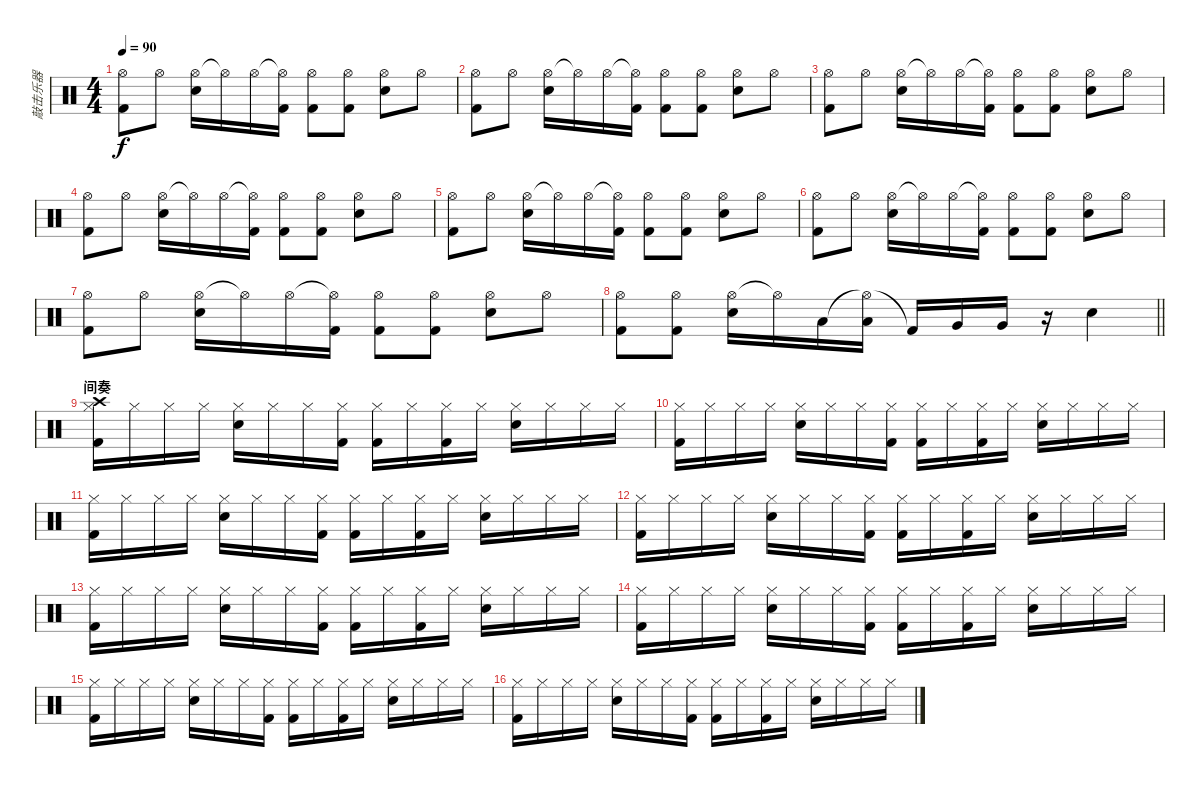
\track ("敲击乐器" "敲击乐器") {instrument percussion}
\staff {score}
\articulation defaults
\ts (4 4)
\tempo 90
\clef neutral
\ks c
("Hi-Hat (open)" "Kick (hit) 2").8{dy f} "Hi-Hat (open)".8 ("Hi-Hat (open)" "Electric Snare (hit)").16 "Hi-Hat (open)"{t}.16 "Hi-Hat (open)".16 ("Hi-Hat (open)"{t} "Kick (hit) 2").16 ("Hi-Hat (open)" "Kick (hit) 2").8 ("Hi-Hat (open)" "Kick (hit) 2").8 ("Hi-Hat (open)" "Electric Snare (hit)").8 "Hi-Hat (open)".8 |
("Hi-Hat (open)" "Kick (hit) 2").8 "Hi-Hat (open)".8 ("Hi-Hat (open)" "Electric Snare (hit)").16 "Hi-Hat (open)"{t}.16 "Hi-Hat (open)".16 ("Hi-Hat (open)"{t} "Kick (hit) 2").16 ("Hi-Hat (open)" "Kick (hit) 2").8 ("Hi-Hat (open)" "Kick (hit) 2").8 ("Hi-Hat (open)" "Electric Snare (hit)").8 "Hi-Hat (open)".8 |
("Hi-Hat (open)" "Kick (hit) 2").8 "Hi-Hat (open)".8 ("Hi-Hat (open)" "Electric Snare (hit)").16 "Hi-Hat (open)"{t}.16 "Hi-Hat (open)".16 ("Hi-Hat (open)"{t} "Kick (hit) 2").16 ("Hi-Hat (open)" "Kick (hit) 2").8 ("Hi-Hat (open)" "Kick (hit) 2").8 ("Hi-Hat (open)" "Electric Snare (hit)").8 "Hi-Hat (open)".8 |
("Hi-Hat (open)" "Kick (hit) 2").8 "Hi-Hat (open)".8 ("Hi-Hat (open)" "Electric Snare (hit)").16 "Hi-Hat (open)"{t}.16 "Hi-Hat (open)".16 ("Hi-Hat (open)"{t} "Kick (hit) 2").16 ("Hi-Hat (open)" "Kick (hit) 2").8 ("Hi-Hat (open)" "Kick (hit) 2").8 ("Hi-Hat (open)" "Electric Snare (hit)").8 "Hi-Hat (open)".8 |
("Hi-Hat (open)" "Kick (hit) 2").8 "Hi-Hat (open)".8 ("Hi-Hat (open)" "Electric Snare (hit)").16 "Hi-Hat (open)"{t}.16 "Hi-Hat (open)".16 ("Hi-Hat (open)"{t} "Kick (hit) 2").16 ("Hi-Hat (open)" "Kick (hit) 2").8 ("Hi-Hat (open)" "Kick (hit) 2").8 ("Hi-Hat (open)" "Electric Snare (hit)").8 "Hi-Hat (open)".8 |
("Hi-Hat (open)" "Kick (hit) 2").8 "Hi-Hat (open)".8 ("Hi-Hat (open)" "Electric Snare (hit)").16 "Hi-Hat (open)"{t}.16 "Hi-Hat (open)".16 ("Hi-Hat (open)"{t} "Kick (hit) 2").16 ("Hi-Hat (open)" "Kick (hit) 2").8 ("Hi-Hat (open)" "Kick (hit) 2").8 ("Hi-Hat (open)" "Electric Snare (hit)").8 "Hi-Hat (open)".8 |
("Hi-Hat (open)" "Kick (hit) 2").8 "Hi-Hat (open)".8 ("Hi-Hat (open)" "Electric Snare (hit)").16 "Hi-Hat (open)"{t}.16 "Hi-Hat (open)".16 ("Hi-Hat (open)"{t} "Kick (hit) 2").16 ("Hi-Hat (open)" "Kick (hit) 2").8 ("Hi-Hat (open)" "Kick (hit) 2").8 ("Hi-Hat (open)" "Electric Snare (hit)").8 "Hi-Hat (open)".8 |
\barLineRight lightlight
("Hi-Hat (open)" "Kick (hit) 2").8 ("Hi-Hat (open)" "Kick (hit) 2").8 ("Hi-Hat (open)" "Electric Snare (hit)").16 "Hi-Hat (open)"{t}.16 "Low Tom (hit)".16 ("Hi-Hat (open)"{t} "Low Tom (hit)").16 "Kick (hit) 2"{t}.16 "Very Low Tom (hit)".16 "Very Low Tom (hit)".16 r.16 "Electric Snare (hit)".4 |
\section ("" "间奏")
("Hi-Hat (closed)" "Kick (hit) 2" "Crash high (hit)").16 "Hi-Hat (closed)".16 "Hi-Hat (closed)".16 "Hi-Hat (closed)".16 ("Hi-Hat (closed)" "Electric Snare (hit)").16 "Hi-Hat (closed)".16 "Hi-Hat (closed)".16 ("Hi-Hat (closed)" "Kick (hit) 2").16 ("Hi-Hat (closed)" "Kick (hit) 2").16 "Hi-Hat (closed)".16 ("Hi-Hat (closed)" "Kick (hit) 2").16 "Hi-Hat (closed)".16 ("Hi-Hat (closed)" "Electric Snare (hit)").16 "Hi-Hat (closed)".16 "Hi-Hat (closed)".16 "Hi-Hat (closed)".16 |
("Hi-Hat (closed)" "Kick (hit) 2").16 "Hi-Hat (closed)".16 "Hi-Hat (closed)".16 "Hi-Hat (closed)".16 ("Hi-Hat (closed)" "Electric Snare (hit)").16 "Hi-Hat (closed)".16 "Hi-Hat (closed)".16 ("Hi-Hat (closed)" "Kick (hit) 2").16 ("Hi-Hat (closed)" "Kick (hit) 2").16 "Hi-Hat (closed)".16 ("Hi-Hat (closed)" "Kick (hit) 2").16 "Hi-Hat (closed)".16 ("Hi-Hat (closed)" "Electric Snare (hit)").16 "Hi-Hat (closed)".16 "Hi-Hat (closed)".16 "Hi-Hat (closed)".16 |
("Hi-Hat (closed)" "Kick (hit) 2").16 "Hi-Hat (closed)".16 "Hi-Hat (closed)".16 "Hi-Hat (closed)".16 ("Hi-Hat (closed)" "Electric Snare (hit)").16 "Hi-Hat (closed)".16 "Hi-Hat (closed)".16 ("Hi-Hat (closed)" "Kick (hit) 2").16 ("Hi-Hat (closed)" "Kick (hit) 2").16 "Hi-Hat (closed)".16 ("Hi-Hat (closed)" "Kick (hit) 2").16 "Hi-Hat (closed)".16 ("Hi-Hat (closed)" "Electric Snare (hit)").16 "Hi-Hat (closed)".16 "Hi-Hat (closed)".16 "Hi-Hat (closed)".16 |
("Hi-Hat (closed)" "Kick (hit) 2").16 "Hi-Hat (closed)".16 "Hi-Hat (closed)".16 "Hi-Hat (closed)".16 ("Hi-Hat (closed)" "Electric Snare (hit)").16 "Hi-Hat (closed)".16 "Hi-Hat (closed)".16 ("Hi-Hat (closed)" "Kick (hit) 2").16 ("Hi-Hat (closed)" "Kick (hit) 2").16 "Hi-Hat (closed)".16 ("Hi-Hat (closed)" "Kick (hit) 2").16 "Hi-Hat (closed)".16 ("Hi-Hat (closed)" "Electric Snare (hit)").16 "Hi-Hat (closed)".16 "Hi-Hat (closed)".16 "Hi-Hat (closed)".16 |
("Hi-Hat (closed)" "Kick (hit) 2").16 "Hi-Hat (closed)".16 "Hi-Hat (closed)".16 "Hi-Hat (closed)".16 ("Hi-Hat (closed)" "Electric Snare (hit)").16 "Hi-Hat (closed)".16 "Hi-Hat (closed)".16 ("Hi-Hat (closed)" "Kick (hit) 2").16 ("Hi-Hat (closed)" "Kick (hit) 2").16 "Hi-Hat (closed)".16 ("Hi-Hat (closed)" "Kick (hit) 2").16 "Hi-Hat (closed)".16 ("Hi-Hat (closed)" "Electric Snare (hit)").16 "Hi-Hat (closed)".16 "Hi-Hat (closed)".16 "Hi-Hat (closed)".16 |
("Hi-Hat (closed)" "Kick (hit) 2").16 "Hi-Hat (closed)".16 "Hi-Hat (closed)".16 "Hi-Hat (closed)".16 ("Hi-Hat (closed)" "Electric Snare (hit)").16 "Hi-Hat (closed)".16 "Hi-Hat (closed)".16 ("Hi-Hat (closed)" "Kick (hit) 2").16 ("Hi-Hat (closed)" "Kick (hit) 2").16 "Hi-Hat (closed)".16 ("Hi-Hat (closed)" "Kick (hit) 2").16 "Hi-Hat (closed)".16 ("Hi-Hat (closed)" "Electric Snare (hit)").16 "Hi-Hat (closed)".16 "Hi-Hat (closed)".16 "Hi-Hat (closed)".16 |
("Hi-Hat (closed)" "Kick (hit) 2").16 "Hi-Hat (closed)".16 "Hi-Hat (closed)".16 "Hi-Hat (closed)".16 ("Hi-Hat (closed)" "Electric Snare (hit)").16 "Hi-Hat (closed)".16 "Hi-Hat (closed)".16 ("Hi-Hat (closed)" "Kick (hit) 2").16 ("Hi-Hat (closed)" "Kick (hit) 2").16 "Hi-Hat (closed)".16 ("Hi-Hat (closed)" "Kick (hit) 2").16 "Hi-Hat (closed)".16 ("Hi-Hat (closed)" "Electric Snare (hit)").16 "Hi-Hat (closed)".16 "Hi-Hat (closed)".16 "Hi-Hat (closed)".16 |
("Hi-Hat (closed)" "Kick (hit) 2").16 "Hi-Hat (closed)".16 "Hi-Hat (closed)".16 "Hi-Hat (closed)".16 ("Hi-Hat (closed)" "Electric Snare (hit)").16 "Hi-Hat (closed)".16 "Hi-Hat (closed)".16 ("Hi-Hat (closed)" "Kick (hit) 2").16 ("Hi-Hat (closed)" "Kick (hit) 2").16 "Hi-Hat (closed)".16 ("Hi-Hat (closed)" "Kick (hit) 2").16 "Hi-Hat (closed)".16 ("Hi-Hat (closed)" "Electric Snare (hit)").16 "Hi-Hat (closed)".16 "Hi-Hat (closed)".16 "Hi-Hat (closed)".16
